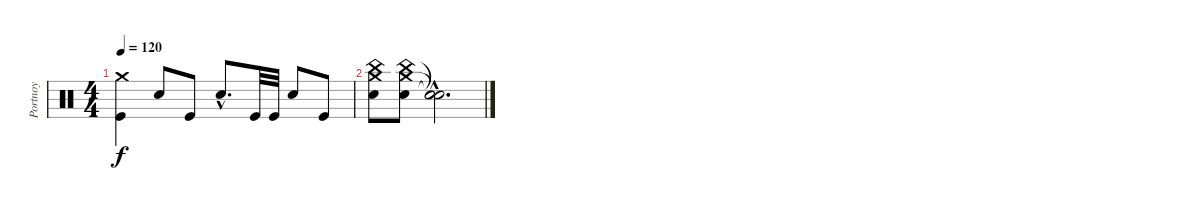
\track ("Portnoy" "Portnoy") {instrument percussion}
\staff {score}
\articulation defaults
\ts (4 4)
\tempo 120
\clef neutral
\ks c
("Crash medium (hit)" "Kick (hit)").4{dy f} "Snare (hit) 2".8 "Kick (hit)".8 "Snare (hit) 2"{hac}.8{d} "Kick (hit)".32 "Kick (hit)".32 "Snare (hit) 2".8 "Kick (hit)".8 |
("Crash medium (hit)" "Snare (hit) 2" "China (hit)").8 ("Crash medium (hit)" "Snare (hit) 2" "China (hit)").8 ("Snare (hit)"{hac t} "Snare (hit)"{hac t} "Snare (hit)"{hac t}).2{d}
